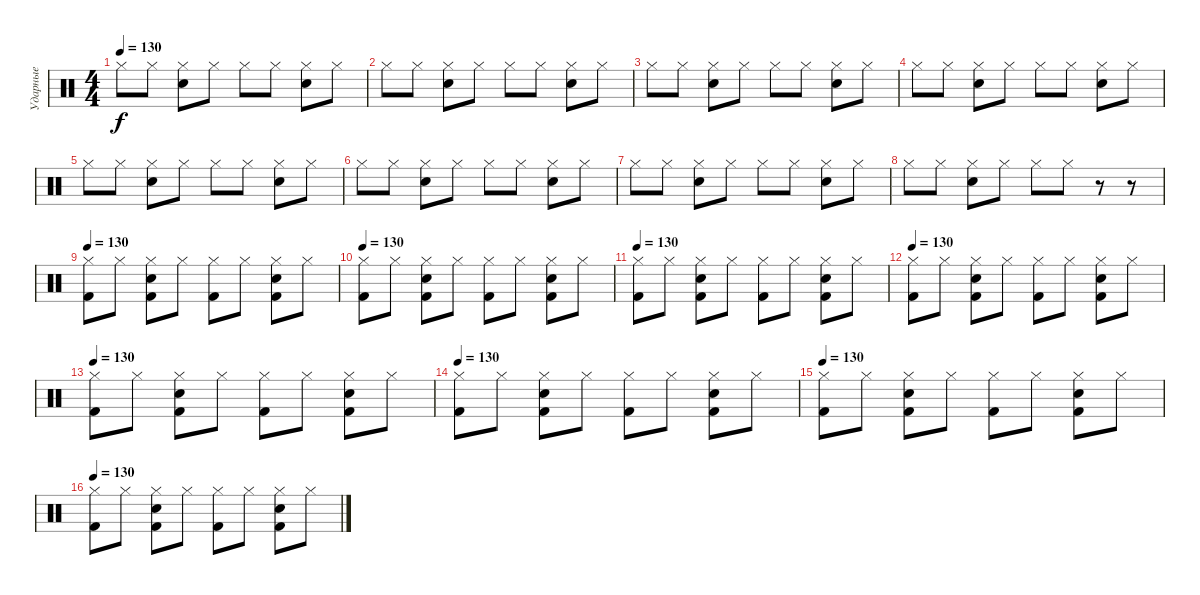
\track ("Ударные" "Ударные") {instrument percussion}
\staff {score}
\articulation defaults
\ts (4 4)
\tempo 130
\clef neutral
\ks c "Hi-Hat (closed)".8{dy f} "Hi-Hat (closed)".8
("Hi-Hat (closed)" "Snare (hit) 2").8 "Hi-Hat (closed)".8 "Hi-Hat (closed)".8 "Hi-Hat (closed)".8 ("Hi-Hat (closed)" "Snare (hit) 2").8 "Hi-Hat (closed)".8 |
"Hi-Hat (closed)".8 "Hi-Hat (closed)".8 ("Hi-Hat (closed)" "Snare (hit) 2").8 "Hi-Hat (closed)".8 "Hi-Hat (closed)".8 "Hi-Hat (closed)".8 ("Hi-Hat (closed)" "Snare (hit) 2").8 "Hi-Hat (closed)".8 |
"Hi-Hat (closed)".8 "Hi-Hat (closed)".8 ("Hi-Hat (closed)" "Snare (hit) 2").8 "Hi-Hat (closed)".8 "Hi-Hat (closed)".8 "Hi-Hat (closed)".8 ("Hi-Hat (closed)" "Snare (hit) 2").8 "Hi-Hat (closed)".8 |
"Hi-Hat (closed)".8 "Hi-Hat (closed)".8 ("Hi-Hat (closed)" "Snare (hit) 2").8 "Hi-Hat (closed)".8 "Hi-Hat (closed)".8 "Hi-Hat (closed)".8 ("Hi-Hat (closed)" "Snare (hit) 2").8 "Hi-Hat (closed)".8 |
"Hi-Hat (closed)".8 "Hi-Hat (closed)".8 ("Hi-Hat (closed)" "Snare (hit) 2").8 "Hi-Hat (closed)".8 "Hi-Hat (closed)".8 "Hi-Hat (closed)".8 ("Hi-Hat (closed)" "Snare (hit) 2").8 "Hi-Hat (closed)".8 |
"Hi-Hat (closed)".8 "Hi-Hat (closed)".8 ("Hi-Hat (closed)" "Snare (hit) 2").8 "Hi-Hat (closed)".8 "Hi-Hat (closed)".8 "Hi-Hat (closed)".8 ("Hi-Hat (closed)" "Snare (hit) 2").8 "Hi-Hat (closed)".8 |
"Hi-Hat (closed)".8 "Hi-Hat (closed)".8 ("Hi-Hat (closed)" "Snare (hit) 2").8 "Hi-Hat (closed)".8 "Hi-Hat (closed)".8 "Hi-Hat (closed)".8 ("Hi-Hat (closed)" "Snare (hit) 2").8 "Hi-Hat (closed)".8 |
"Hi-Hat (closed)".8 "Hi-Hat (closed)".8 ("Hi-Hat (closed)" "Snare (hit) 2").8 "Hi-Hat (closed)".8 "Hi-Hat (closed)".8 "Hi-Hat (closed)".8 r.8 r.8 |
\tempo 130
("Hi-Hat (closed)" "Kick (hit) 2").8 "Hi-Hat (closed)".8 ("Hi-Hat (closed)" "Snare (hit) 2" "Kick (hit) 2").8 "Hi-Hat (closed)".8 ("Hi-Hat (closed)" "Kick (hit) 2").8 "Hi-Hat (closed)".8 ("Hi-Hat (closed)" "Snare (hit) 2" "Kick (hit) 2").8 "Hi-Hat (closed)".8 |
\tempo 130
("Hi-Hat (closed)" "Kick (hit) 2").8 "Hi-Hat (closed)".8 ("Hi-Hat (closed)" "Snare (hit) 2" "Kick (hit) 2").8 "Hi-Hat (closed)".8 ("Hi-Hat (closed)" "Kick (hit) 2").8 "Hi-Hat (closed)".8 ("Hi-Hat (closed)" "Snare (hit) 2" "Kick (hit) 2").8 "Hi-Hat (closed)".8 |
\tempo 130
("Hi-Hat (closed)" "Kick (hit) 2").8 "Hi-Hat (closed)".8 ("Hi-Hat (closed)" "Snare (hit) 2" "Kick (hit) 2").8 "Hi-Hat (closed)".8 ("Hi-Hat (closed)" "Kick (hit) 2").8 "Hi-Hat (closed)".8 ("Hi-Hat (closed)" "Snare (hit) 2" "Kick (hit) 2").8 "Hi-Hat (closed)".8 |
\tempo 130
("Hi-Hat (closed)" "Kick (hit) 2").8 "Hi-Hat (closed)".8 ("Hi-Hat (closed)" "Snare (hit) 2" "Kick (hit) 2").8 "Hi-Hat (closed)".8 ("Hi-Hat (closed)" "Kick (hit) 2").8 "Hi-Hat (closed)".8 ("Hi-Hat (closed)" "Snare (hit) 2" "Kick (hit) 2").8 "Hi-Hat (closed)".8 |
\tempo 130
("Hi-Hat (closed)" "Kick (hit) 2").8 "Hi-Hat (closed)".8 ("Hi-Hat (closed)" "Snare (hit) 2" "Kick (hit) 2").8 "Hi-Hat (closed)".8 ("Hi-Hat (closed)" "Kick (hit) 2").8 "Hi-Hat (closed)".8 ("Hi-Hat (closed)" "Snare (hit) 2" "Kick (hit) 2").8 "Hi-Hat (closed)".8 |
\tempo 130
("Hi-Hat (closed)" "Kick (hit) 2").8 "Hi-Hat (closed)".8 ("Hi-Hat (closed)" "Snare (hit) 2" "Kick (hit) 2").8 "Hi-Hat (closed)".8 ("Hi-Hat (closed)" "Kick (hit) 2").8 "Hi-Hat (closed)".8 ("Hi-Hat (closed)" "Snare (hit) 2" "Kick (hit) 2").8 "Hi-Hat (closed)".8 |
\tempo 130
("Hi-Hat (closed)" "Kick (hit) 2").8 "Hi-Hat (closed)".8 ("Hi-Hat (closed)" "Snare (hit) 2" "Kick (hit) 2").8 "Hi-Hat (closed)".8 ("Hi-Hat (closed)" "Kick (hit) 2").8 "Hi-Hat (closed)".8 ("Hi-Hat (closed)" "Snare (hit) 2" "Kick (hit) 2").8 "Hi-Hat (closed)".8 |
\tempo 130
("Hi-Hat (closed)" "Kick (hit) 2").8 "Hi-Hat (closed)".8 ("Hi-Hat (closed)" "Snare (hit) 2" "Kick (hit) 2").8 "Hi-Hat (closed)".8 ("Hi-Hat (closed)" "Kick (hit) 2").8 "Hi-Hat (closed)".8 ("Hi-Hat (closed)" "Snare (hit) 2" "Kick (hit) 2").8 "Hi-Hat (closed)".8
